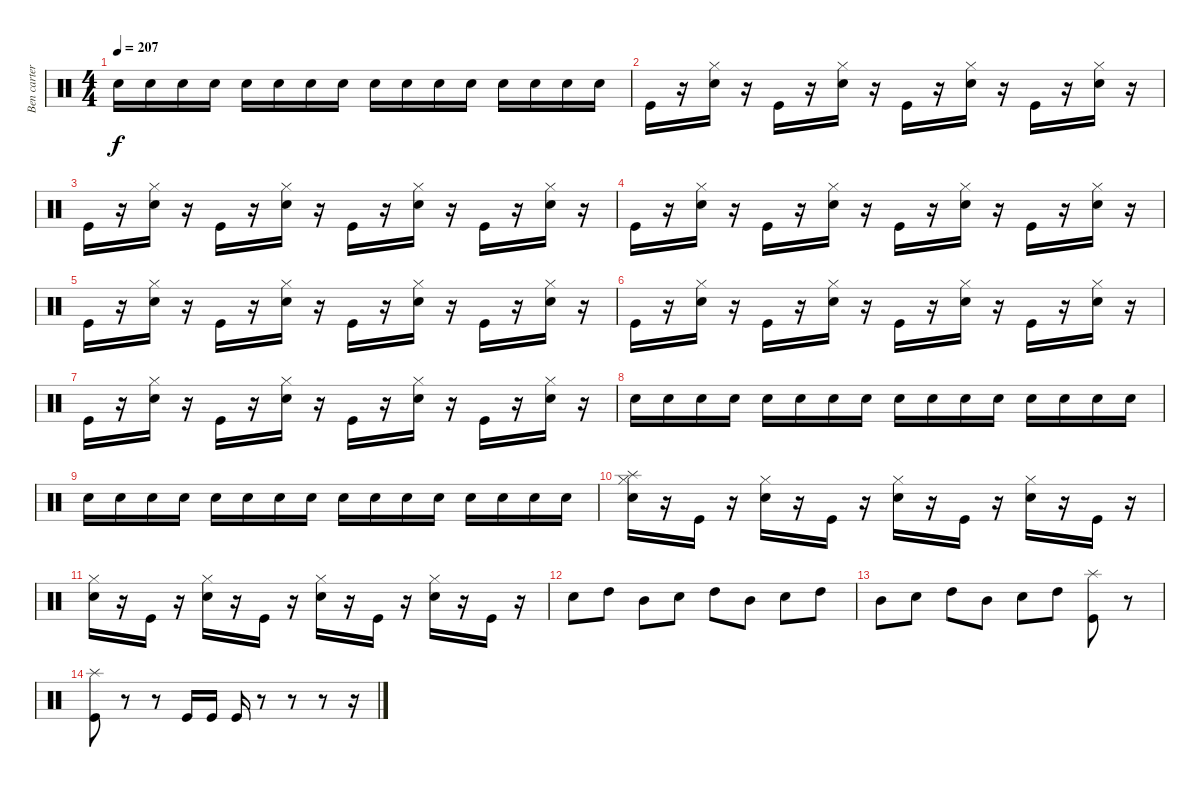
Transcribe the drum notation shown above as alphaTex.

\track ("Ben carter" "Ben carter") {instrument percussion}
\staff {score}
\articulation defaults
\ts (4 4)
\tempo 207
\clef neutral
\ks c "Snare (hit) 2".16{dy f} "Snare (hit) 2".16 "Snare (hit) 2".16 "Snare (hit) 2".16 "Snare (hit) 2".16 "Snare (hit) 2".16 "Snare (hit) 2".16 "Snare (hit) 2".16 "Snare (hit) 2".16 "Snare (hit) 2".16 "Snare (hit) 2".16 "Snare (hit) 2".16 "Snare (hit) 2".16 "Snare (hit) 2".16 "Snare (hit) 2".16 "Snare (hit) 2".16
|
"Kick (hit)".16 r.16 ("Hi-Hat (closed)" "Electric Snare (hit)").16 r.16 "Kick (hit)".16 r.16 ("Hi-Hat (closed)" "Electric Snare (hit)").16 r.16 "Kick (hit)".16 r.16 ("Hi-Hat (closed)" "Electric Snare (hit)").16 r.16 "Kick (hit)".16 r.16 ("Hi-Hat (closed)" "Electric Snare (hit)").16 r.16 |
"Kick (hit)".16 r.16 ("Hi-Hat (closed)" "Electric Snare (hit)").16 r.16 "Kick (hit)".16 r.16 ("Hi-Hat (closed)" "Electric Snare (hit)").16 r.16 "Kick (hit)".16 r.16 ("Hi-Hat (closed)" "Electric Snare (hit)").16 r.16 "Kick (hit)".16 r.16 ("Hi-Hat (closed)" "Electric Snare (hit)").16 r.16 |
"Kick (hit)".16 r.16 ("Hi-Hat (closed)" "Electric Snare (hit)").16 r.16 "Kick (hit)".16 r.16 ("Hi-Hat (closed)" "Electric Snare (hit)").16 r.16 "Kick (hit)".16 r.16 ("Hi-Hat (closed)" "Electric Snare (hit)").16 r.16 "Kick (hit)".16 r.16 ("Hi-Hat (closed)" "Electric Snare (hit)").16 r.16 |
"Kick (hit)".16 r.16 ("Hi-Hat (closed)" "Electric Snare (hit)").16 r.16 "Kick (hit)".16 r.16 ("Hi-Hat (closed)" "Electric Snare (hit)").16 r.16 "Kick (hit)".16 r.16 ("Hi-Hat (closed)" "Electric Snare (hit)").16 r.16 "Kick (hit)".16 r.16 ("Hi-Hat (closed)" "Electric Snare (hit)").16 r.16 |
"Kick (hit)".16 r.16 ("Hi-Hat (closed)" "Electric Snare (hit)").16 r.16 "Kick (hit)".16 r.16 ("Hi-Hat (closed)" "Electric Snare (hit)").16 r.16 "Kick (hit)".16 r.16 ("Hi-Hat (closed)" "Electric Snare (hit)").16 r.16 "Kick (hit)".16 r.16 ("Hi-Hat (closed)" "Electric Snare (hit)").16 r.16 |
"Kick (hit)".16 r.16 ("Hi-Hat (closed)" "Electric Snare (hit)").16 r.16 "Kick (hit)".16 r.16 ("Hi-Hat (closed)" "Electric Snare (hit)").16 r.16 "Kick (hit)".16 r.16 ("Hi-Hat (closed)" "Electric Snare (hit)").16 r.16 "Kick (hit)".16 r.16 ("Hi-Hat (closed)" "Electric Snare (hit)").16 r.16 |
"Snare (hit) 2".16 "Snare (hit) 2".16 "Snare (hit) 2".16 "Snare (hit) 2".16 "Snare (hit) 2".16 "Snare (hit) 2".16 "Snare (hit) 2".16 "Snare (hit) 2".16 "Snare (hit) 2".16 "Snare (hit) 2".16 "Snare (hit) 2".16 "Snare (hit) 2".16 "Snare (hit) 2".16 "Snare (hit) 2".16 "Snare (hit) 2".16 "Snare (hit) 2".16 |
"Snare (hit) 2".16 "Snare (hit) 2".16 "Snare (hit) 2".16 "Snare (hit) 2".16 "Snare (hit) 2".16 "Snare (hit) 2".16 "Snare (hit) 2".16 "Snare (hit) 2".16 "Snare (hit) 2".16 "Snare (hit) 2".16 "Snare (hit) 2".16 "Snare (hit) 2".16 "Snare (hit) 2".16 "Snare (hit) 2".16 "Snare (hit) 2".16 "Snare (hit) 2".16 |
("Hi-Hat (closed)" "Electric Snare (hit)" "Splash (hit)").16 r.16 "Kick (hit)".16 r.16 ("Hi-Hat (closed)" "Electric Snare (hit)").16 r.16 "Kick (hit)".16 r.16 ("Hi-Hat (closed)" "Electric Snare (hit)").16 r.16 "Kick (hit)".16 r.16 ("Hi-Hat (closed)" "Electric Snare (hit)").16 r.16 "Kick (hit)".16 r.16 |
("Hi-Hat (closed)" "Electric Snare (hit)").16 r.16 "Kick (hit)".16 r.16 ("Hi-Hat (closed)" "Electric Snare (hit)").16 r.16 "Kick (hit)".16 r.16 ("Hi-Hat (closed)" "Electric Snare (hit)").16 r.16 "Kick (hit)".16 r.16 ("Hi-Hat (closed)" "Electric Snare (hit)").16 r.16 "Kick (hit)".16 r.16 |
"Snare (hit) 2".8 "High Tom (hit)".8 "Mid Tom (hit)".8 "Snare (hit) 2".8 "High Tom (hit)".8 "Mid Tom (hit)".8 "Snare (hit) 2".8 "High Tom (hit)".8 |
"Mid Tom (hit)".8 "Snare (hit) 2".8 "High Tom (hit)".8 "Mid Tom (hit)".8 "Snare (hit) 2".8 "High Tom (hit)".8 ("Kick (hit)" "Splash (hit)").8 r.8 |
("Kick (hit)" "Splash (hit)").8 r.8 r.8 "Kick (hit)".16 "Kick (hit)".16 "Kick (hit)".16 r.8 r.8 r.8 r.16
